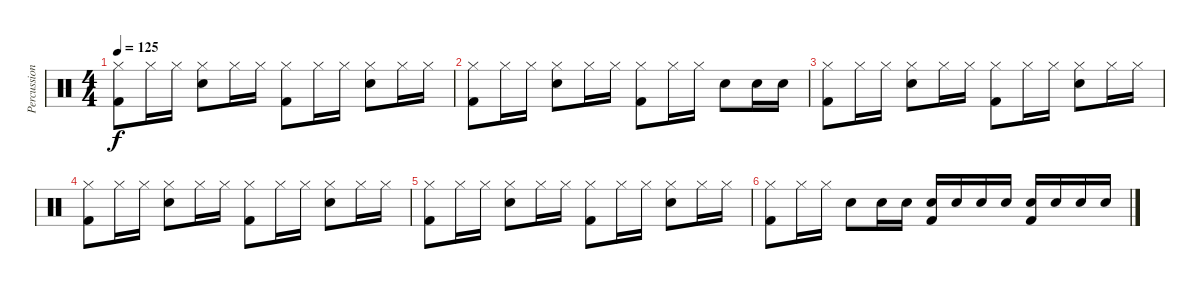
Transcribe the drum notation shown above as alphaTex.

\track ("Percussion" "Percussion") {instrument percussion}
\staff {score}
\articulation defaults
\ts (4 4)
\tempo 125
\clef neutral
\ks c
("Hi-Hat (closed)" "Kick (hit) 2").8{dy f} "Hi-Hat (closed)".16 "Hi-Hat (closed)".16 ("Hi-Hat (closed)" "Snare (hit) 2").8 "Hi-Hat (closed)".16 "Hi-Hat (closed)".16 ("Hi-Hat (closed)" "Kick (hit) 2").8 "Hi-Hat (closed)".16 "Hi-Hat (closed)".16 ("Hi-Hat (closed)" "Snare (hit) 2").8 "Hi-Hat (closed)".16 "Hi-Hat (closed)".16 |
("Hi-Hat (closed)" "Kick (hit) 2").8 "Hi-Hat (closed)".16 "Hi-Hat (closed)".16 ("Hi-Hat (closed)" "Snare (hit) 2").8 "Hi-Hat (closed)".16 "Hi-Hat (closed)".16 ("Hi-Hat (closed)" "Kick (hit) 2").8 "Hi-Hat (closed)".16 "Hi-Hat (closed)".16 "Snare (hit) 2".8 "Snare (hit) 2".16 "Snare (hit) 2".16 |
("Hi-Hat (closed)" "Kick (hit) 2").8 "Hi-Hat (closed)".16 "Hi-Hat (closed)".16 ("Hi-Hat (closed)" "Snare (hit) 2").8 "Hi-Hat (closed)".16 "Hi-Hat (closed)".16 ("Hi-Hat (closed)" "Kick (hit) 2").8 "Hi-Hat (closed)".16 "Hi-Hat (closed)".16 ("Hi-Hat (closed)" "Snare (hit) 2").8 "Hi-Hat (closed)".16 "Hi-Hat (closed)".16 |
("Hi-Hat (closed)" "Kick (hit) 2").8 "Hi-Hat (closed)".16 "Hi-Hat (closed)".16 ("Hi-Hat (closed)" "Snare (hit) 2").8 "Hi-Hat (closed)".16 "Hi-Hat (closed)".16 ("Hi-Hat (closed)" "Kick (hit) 2").8 "Hi-Hat (closed)".16 "Hi-Hat (closed)".16 ("Hi-Hat (closed)" "Snare (hit) 2").8 "Hi-Hat (closed)".16 "Hi-Hat (closed)".16 |
("Hi-Hat (closed)" "Kick (hit) 2").8 "Hi-Hat (closed)".16 "Hi-Hat (closed)".16 ("Hi-Hat (closed)" "Snare (hit) 2").8 "Hi-Hat (closed)".16 "Hi-Hat (closed)".16 ("Hi-Hat (closed)" "Kick (hit) 2").8 "Hi-Hat (closed)".16 "Hi-Hat (closed)".16 ("Hi-Hat (closed)" "Snare (hit) 2").8 "Hi-Hat (closed)".16 "Hi-Hat (closed)".16 |
("Hi-Hat (closed)" "Kick (hit) 2").8 "Hi-Hat (closed)".16 "Hi-Hat (closed)".16 "Snare (hit) 2".8 "Snare (hit) 2".16 "Snare (hit) 2".16 ("Snare (hit) 2" "Kick (hit) 2").16 "Snare (hit) 2".16 "Snare (hit) 2".16 "Snare (hit) 2".16 ("Snare (hit) 2" "Kick (hit) 2").16 "Snare (hit) 2".16 "Snare (hit) 2".16 "Snare (hit) 2".16
